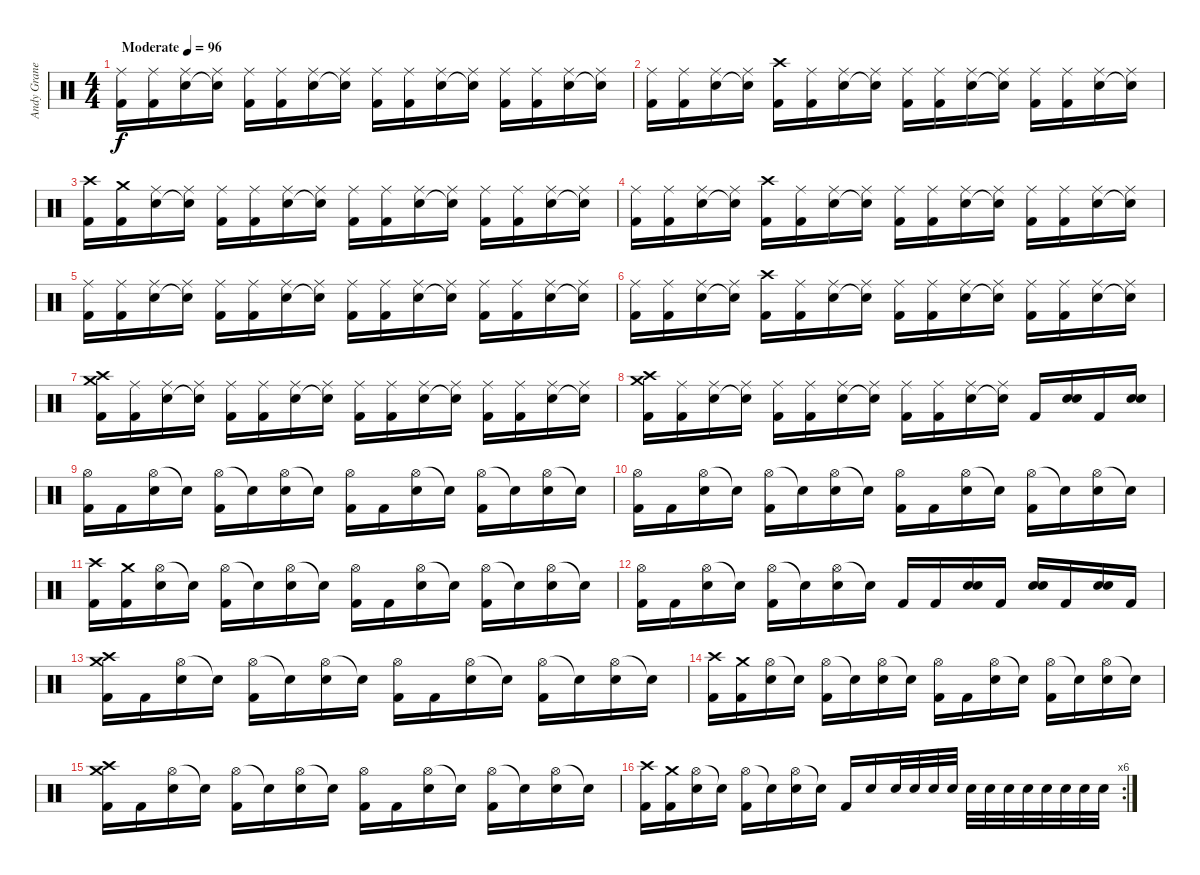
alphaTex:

\track ("Andy Granelli" "Andy Grane") {instrument percussion}
\staff {score}
\articulation defaults
\ts (4 4)
\tempo (96 "Moderate")
\clef neutral
\ks c
("Ride (middle)" "Kick (hit) 2").16{dy f} ("Ride (middle)" "Kick (hit) 2").16 ("Ride (middle)" "Snare (hit) 2").16 ("Ride (middle)" "Snare (hit)"{t}).16 ("Ride (middle)" "Kick (hit) 2").16 ("Ride (middle)" "Kick (hit) 2").16 ("Ride (middle)" "Snare (hit) 2").16 ("Ride (middle)" "Snare (hit)"{t}).16 ("Ride (middle)" "Kick (hit) 2").16 ("Ride (middle)" "Kick (hit) 2").16 ("Ride (middle)" "Snare (hit) 2").16 ("Ride (middle)" "Snare (hit)"{t}).16 ("Ride (middle)" "Kick (hit) 2").16 ("Ride (middle)" "Kick (hit) 2").16 ("Ride (middle)" "Snare (hit) 2").16 ("Ride (middle)" "Snare (hit)"{t}).16 |
("Ride (middle)" "Kick (hit) 2").16 ("Ride (middle)" "Kick (hit) 2").16 ("Ride (middle)" "Snare (hit) 2").16 ("Ride (middle)" "Snare (hit)"{t}).16 ("Crash high (hit)" "Kick (hit) 2").16 ("Ride (middle)" "Kick (hit) 2").16 ("Ride (middle)" "Snare (hit) 2").16 ("Ride (middle)" "Snare (hit)"{t}).16 ("Ride (middle)" "Kick (hit) 2").16 ("Ride (middle)" "Kick (hit) 2").16 ("Ride (middle)" "Snare (hit) 2").16 ("Ride (middle)" "Snare (hit)"{t}).16 ("Ride (middle)" "Kick (hit) 2").16 ("Ride (middle)" "Kick (hit) 2").16 ("Ride (middle)" "Snare (hit) 2").16 ("Ride (middle)" "Snare (hit)"{t}).16 |
("Crash high (hit)" "Kick (hit) 2").16 ("Crash medium (hit)" "Kick (hit) 2").16 ("Ride (middle)" "Snare (hit) 2").16 ("Ride (middle)" "Snare (hit)"{t}).16 ("Ride (middle)" "Kick (hit) 2").16 ("Ride (middle)" "Kick (hit) 2").16 ("Ride (middle)" "Snare (hit) 2").16 ("Ride (middle)" "Snare (hit)"{t}).16 ("Ride (middle)" "Kick (hit) 2").16 ("Ride (middle)" "Kick (hit) 2").16 ("Ride (middle)" "Snare (hit) 2").16 ("Ride (middle)" "Snare (hit)"{t}).16 ("Ride (middle)" "Kick (hit) 2").16 ("Ride (middle)" "Kick (hit) 2").16 ("Ride (middle)" "Snare (hit) 2").16 ("Ride (middle)" "Snare (hit)"{t}).16 |
("Ride (middle)" "Kick (hit) 2").16 ("Ride (middle)" "Kick (hit) 2").16 ("Ride (middle)" "Snare (hit) 2").16 ("Ride (middle)" "Snare (hit)"{t}).16 ("Crash high (hit)" "Kick (hit) 2").16 ("Ride (middle)" "Kick (hit) 2").16 ("Ride (middle)" "Snare (hit) 2").16 ("Ride (middle)" "Snare (hit)"{t}).16 ("Ride (middle)" "Kick (hit) 2").16 ("Ride (middle)" "Kick (hit) 2").16 ("Ride (middle)" "Snare (hit) 2").16 ("Ride (middle)" "Snare (hit)"{t}).16 ("Ride (middle)" "Kick (hit) 2").16 ("Ride (middle)" "Kick (hit) 2").16 ("Ride (middle)" "Snare (hit) 2").16 ("Ride (middle)" "Snare (hit)"{t}).16 |
("Ride (middle)" "Kick (hit) 2").16 ("Ride (middle)" "Kick (hit) 2").16 ("Ride (middle)" "Snare (hit) 2").16 ("Ride (middle)" "Snare (hit)"{t}).16 ("Ride (middle)" "Kick (hit) 2").16 ("Ride (middle)" "Kick (hit) 2").16 ("Ride (middle)" "Snare (hit) 2").16 ("Ride (middle)" "Snare (hit)"{t}).16 ("Ride (middle)" "Kick (hit) 2").16 ("Ride (middle)" "Kick (hit) 2").16 ("Ride (middle)" "Snare (hit) 2").16 ("Ride (middle)" "Snare (hit)"{t}).16 ("Ride (middle)" "Kick (hit) 2").16 ("Ride (middle)" "Kick (hit) 2").16 ("Ride (middle)" "Snare (hit) 2").16 ("Ride (middle)" "Snare (hit)"{t}).16 |
("Ride (middle)" "Kick (hit) 2").16 ("Ride (middle)" "Kick (hit) 2").16 ("Ride (middle)" "Snare (hit) 2").16 ("Ride (middle)" "Snare (hit)"{t}).16 ("Crash high (hit)" "Kick (hit) 2").16 ("Ride (middle)" "Kick (hit) 2").16 ("Ride (middle)" "Snare (hit) 2").16 ("Ride (middle)" "Snare (hit)"{t}).16 ("Ride (middle)" "Kick (hit) 2").16 ("Ride (middle)" "Kick (hit) 2").16 ("Ride (middle)" "Snare (hit) 2").16 ("Ride (middle)" "Snare (hit)"{t}).16 ("Ride (middle)" "Kick (hit) 2").16 ("Ride (middle)" "Kick (hit) 2").16 ("Ride (middle)" "Snare (hit) 2").16 ("Ride (middle)" "Snare (hit)"{t}).16 |
("Crash high (hit)" "Crash medium (hit)" "Kick (hit) 2").16 ("Ride (middle)" "Kick (hit) 2").16 ("Ride (middle)" "Snare (hit) 2").16 ("Ride (middle)" "Snare (hit)"{t}).16 ("Ride (middle)" "Kick (hit) 2").16 ("Ride (middle)" "Kick (hit) 2").16 ("Ride (middle)" "Snare (hit) 2").16 ("Ride (middle)" "Snare (hit)"{t}).16 ("Ride (middle)" "Kick (hit) 2").16 ("Ride (middle)" "Kick (hit) 2").16 ("Ride (middle)" "Snare (hit) 2").16 ("Ride (middle)" "Snare (hit)"{t}).16 ("Ride (middle)" "Kick (hit) 2").16 ("Ride (middle)" "Kick (hit) 2").16 ("Ride (middle)" "Snare (hit) 2").16 ("Ride (middle)" "Snare (hit)"{t}).16 |
("Crash high (hit)" "Crash medium (hit)" "Kick (hit) 2").16 ("Ride (middle)" "Kick (hit) 2").16 ("Ride (middle)" "Snare (hit) 2").16 ("Ride (middle)" "Snare (hit)"{t}).16 ("Ride (middle)" "Kick (hit) 2").16 ("Ride (middle)" "Kick (hit) 2").16 ("Ride (middle)" "Snare (hit) 2").16 ("Ride (middle)" "Snare (hit)"{t}).16 ("Ride (middle)" "Kick (hit) 2").16 ("Ride (middle)" "Kick (hit) 2").16 ("Ride (middle)" "Snare (hit) 2").16 ("Ride (middle)" "Snare (hit)"{t}).16 "Kick (hit) 2".16 ("Electric Snare (hit)" "Electric Snare (hit)").16{bd 480} "Kick (hit) 2".16 ("Electric Snare (hit)" "Electric Snare (hit)").16{bd 480} |
("Hi-Hat (open)" "Kick (hit) 2").16 "Kick (hit) 2".16 ("Hi-Hat (open)" "Snare (hit) 2").16 "Snare (hit)"{t}.16 ("Hi-Hat (open)" "Kick (hit) 2").16 "Snare (hit) 2"{t}.16 ("Hi-Hat (open)" "Snare (hit) 2").16 "Snare (hit)"{t}.16 ("Hi-Hat (open)" "Kick (hit) 2").16 "Kick (hit) 2".16 ("Hi-Hat (open)" "Snare (hit) 2").16 "Snare (hit)"{t}.16 ("Hi-Hat (open)" "Kick (hit) 2").16 "Snare (hit) 2"{t}.16 ("Hi-Hat (open)" "Snare (hit) 2").16 "Snare (hit)"{t}.16 |
("Hi-Hat (open)" "Kick (hit) 2").16 "Kick (hit) 2".16 ("Hi-Hat (open)" "Snare (hit) 2").16 "Snare (hit)"{t}.16 ("Hi-Hat (open)" "Kick (hit) 2").16 "Snare (hit) 2"{t}.16 ("Hi-Hat (open)" "Snare (hit) 2").16 "Snare (hit)"{t}.16 ("Hi-Hat (open)" "Kick (hit) 2").16 "Kick (hit) 2".16 ("Hi-Hat (open)" "Snare (hit) 2").16 "Snare (hit)"{t}.16 ("Hi-Hat (open)" "Kick (hit) 2").16 "Snare (hit) 2"{t}.16 ("Hi-Hat (open)" "Snare (hit) 2").16 "Snare (hit)"{t}.16 |
("Crash high (hit)" "Kick (hit) 2").16 ("Crash medium (hit)" "Kick (hit) 2").16 ("Hi-Hat (open)" "Snare (hit) 2").16 "Snare (hit)"{t}.16 ("Hi-Hat (open)" "Kick (hit) 2").16 "Snare (hit) 2"{t}.16 ("Hi-Hat (open)" "Snare (hit) 2").16 "Snare (hit)"{t}.16 ("Hi-Hat (open)" "Kick (hit) 2").16 "Kick (hit) 2".16 ("Hi-Hat (open)" "Snare (hit) 2").16 "Snare (hit)"{t}.16 ("Hi-Hat (open)" "Kick (hit) 2").16 "Snare (hit) 2"{t}.16 ("Hi-Hat (open)" "Snare (hit) 2").16 "Snare (hit)"{t}.16 |
("Hi-Hat (open)" "Kick (hit) 2").16 "Kick (hit) 2".16 ("Hi-Hat (open)" "Snare (hit) 2").16 "Snare (hit)"{t}.16 ("Hi-Hat (open)" "Kick (hit) 2").16 "Snare (hit) 2"{t}.16 ("Hi-Hat (open)" "Snare (hit) 2").16 "Snare (hit)"{t}.16 "Kick (hit) 2".16 "Kick (hit) 2".16 ("Electric Snare (hit)" "Electric Snare (hit)").16{bd 480} "Kick (hit) 2".16 ("Electric Snare (hit)" "Snare (hit) 2").16{bd 480} "Kick (hit) 2".16 ("Electric Snare (hit)" "Electric Snare (hit)").16{bd 480} "Kick (hit) 2".16 |
("Crash high (hit)" "Crash medium (hit)" "Kick (hit) 2").16 "Kick (hit) 2".16 ("Hi-Hat (open)" "Snare (hit) 2").16 "Snare (hit)"{t}.16 ("Hi-Hat (open)" "Kick (hit) 2").16 "Snare (hit) 2"{t}.16 ("Hi-Hat (open)" "Snare (hit) 2").16 "Snare (hit)"{t}.16 ("Hi-Hat (open)" "Kick (hit) 2").16 "Kick (hit) 2".16 ("Hi-Hat (open)" "Snare (hit) 2").16 "Snare (hit)"{t}.16 ("Hi-Hat (open)" "Kick (hit) 2").16 "Snare (hit) 2"{t}.16 ("Hi-Hat (open)" "Snare (hit) 2").16 "Snare (hit)"{t}.16 |
("Crash high (hit)" "Kick (hit) 2").16 ("Crash medium (hit)" "Kick (hit) 2").16 ("Hi-Hat (open)" "Snare (hit) 2").16 "Snare (hit)"{t}.16 ("Hi-Hat (open)" "Kick (hit) 2").16 "Snare (hit) 2"{t}.16 ("Hi-Hat (open)" "Snare (hit) 2").16 "Snare (hit)"{t}.16 ("Hi-Hat (open)" "Kick (hit) 2").16 "Kick (hit) 2".16 ("Hi-Hat (open)" "Snare (hit) 2").16 "Snare (hit)"{t}.16 ("Hi-Hat (open)" "Kick (hit) 2").16 "Snare (hit) 2"{t}.16 ("Hi-Hat (open)" "Snare (hit) 2").16 "Snare (hit)"{t}.16 |
("Crash high (hit)" "Crash medium (hit)" "Kick (hit) 2").16 "Kick (hit) 2".16 ("Hi-Hat (open)" "Snare (hit) 2").16 "Snare (hit)"{t}.16 ("Hi-Hat (open)" "Kick (hit) 2").16 "Snare (hit) 2"{t}.16 ("Hi-Hat (open)" "Snare (hit) 2").16 "Snare (hit)"{t}.16 ("Hi-Hat (open)" "Kick (hit) 2").16 "Kick (hit) 2".16 ("Hi-Hat (open)" "Snare (hit) 2").16 "Snare (hit)"{t}.16 ("Hi-Hat (open)" "Kick (hit) 2").16 "Snare (hit) 2"{t}.16 ("Hi-Hat (open)" "Snare (hit) 2").16 "Snare (hit)"{t}.16 |
\rc 6
("Crash high (hit)" "Kick (hit) 2").16 ("Crash medium (hit)" "Kick (hit) 2").16 ("Hi-Hat (open)" "Snare (hit) 2").16 "Snare (hit)"{t}.16 ("Hi-Hat (open)" "Kick (hit) 2").16 "Snare (hit) 2"{t}.16 ("Hi-Hat (open)" "Snare (hit) 2").16 "Snare (hit)"{t}.16 "Kick (hit) 2".16 "Electric Snare (hit)".16 "Electric Snare (hit)".32 "Electric Snare (hit)".32 "Electric Snare (hit)".32 "Electric Snare (hit)".32 "Electric Snare (hit)".32 "Electric Snare (hit)".32 "Electric Snare (hit)".32 "Electric Snare (hit)".32 "Electric Snare (hit)".32 "Electric Snare (hit)".32 "Electric Snare (hit)".32 "Electric Snare (hit)".32
